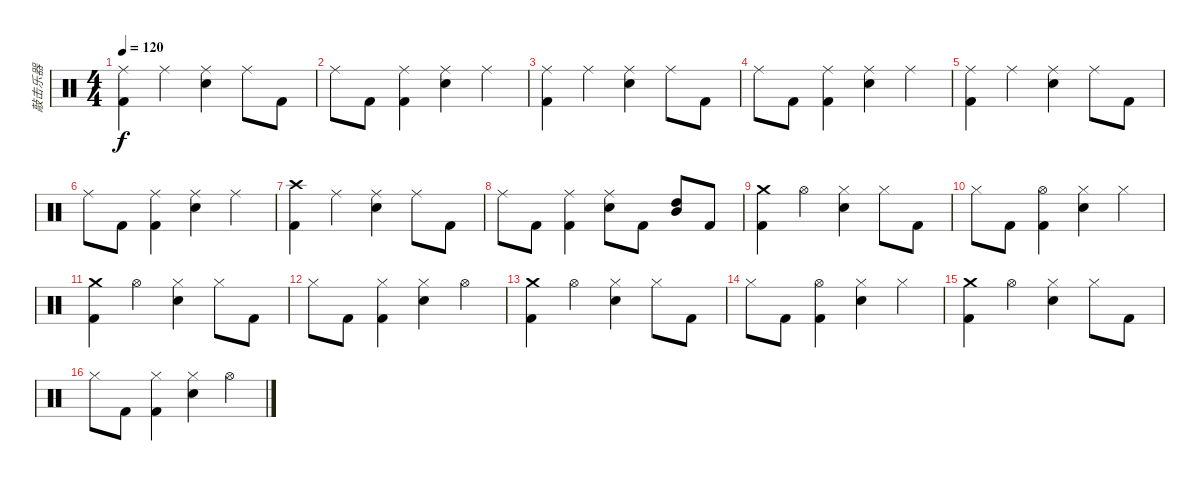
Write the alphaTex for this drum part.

\track ("敲击乐器" "敲击乐器") {instrument percussion}
\staff {score}
\articulation defaults
\ts (4 4)
\tempo 120
\clef neutral
\ks c
("Kick (hit) 2" "Ride (middle)").4{dy f} "Ride (middle)".4 ("Snare (hit) 2" "Ride (middle)").4 "Ride (middle)".8 "Kick (hit) 2".8 |
"Ride (middle)".8 "Kick (hit) 2".8 ("Kick (hit) 2" "Ride (middle)").4 ("Snare (hit) 2" "Ride (middle)").4 "Ride (middle)".4 |
("Kick (hit) 2" "Ride (middle)").4 "Ride (middle)".4 ("Snare (hit) 2" "Ride (middle)").4 "Ride (middle)".8 "Kick (hit) 2".8 |
"Ride (middle)".8 "Kick (hit) 2".8 ("Kick (hit) 2" "Ride (middle)").4 ("Snare (hit) 2" "Ride (middle)").4 "Ride (middle)".4 |
("Kick (hit) 2" "Ride (middle)").4 "Ride (middle)".4 ("Snare (hit) 2" "Ride (middle)").4 "Ride (middle)".8 "Kick (hit) 2".8 |
"Ride (middle)".8 "Kick (hit) 2".8 ("Kick (hit) 2" "Ride (middle)").4 ("Snare (hit) 2" "Ride (middle)").4 "Ride (middle)".4 |
("Kick (hit) 2" "Crash high (hit)").4 "Ride (middle)".4 ("Snare (hit) 2" "Ride (middle)").4 "Ride (middle)".8 "Kick (hit) 2".8 |
"Ride (middle)".8 "Kick (hit) 2".8 ("Kick (hit) 2" "Ride (middle)").4 ("Snare (hit) 2" "Ride (middle)").8 "Kick (hit) 2".8 ("High Tom (hit)" "Mid Tom (hit)").8 "Kick (hit) 2".8 |
("Kick (hit) 2" "Crash medium (hit)").4 "Hi-Hat (open)".4 ("Snare (hit) 2" "Hi-Hat (closed)").4 "Hi-Hat (closed)".8 "Kick (hit) 2".8 |
"Hi-Hat (closed)".8 "Kick (hit) 2".8 ("Kick (hit) 2" "Hi-Hat (open)").4 ("Snare (hit) 2" "Hi-Hat (closed)").4 "Hi-Hat (closed)".4 |
("Kick (hit) 2" "Crash medium (hit)").4 "Hi-Hat (open)".4 ("Snare (hit) 2" "Hi-Hat (closed)").4 "Hi-Hat (closed)".8 "Kick (hit) 2".8 |
"Hi-Hat (closed)".8 "Kick (hit) 2".8 ("Kick (hit) 2" "Hi-Hat (closed)").4 ("Snare (hit) 2" "Hi-Hat (closed)").4 "Hi-Hat (open)".4 |
("Kick (hit) 2" "Crash medium (hit)").4 "Hi-Hat (open)".4 ("Snare (hit) 2" "Hi-Hat (closed)").4 "Hi-Hat (closed)".8 "Kick (hit) 2".8 |
"Hi-Hat (closed)".8 "Kick (hit) 2".8 ("Kick (hit) 2" "Hi-Hat (open)").4 ("Snare (hit) 2" "Hi-Hat (closed)").4 "Hi-Hat (closed)".4 |
("Kick (hit) 2" "Crash medium (hit)").4 "Hi-Hat (open)".4 ("Snare (hit) 2" "Hi-Hat (closed)").4 "Hi-Hat (closed)".8 "Kick (hit) 2".8 |
"Hi-Hat (closed)".8 "Kick (hit) 2".8 ("Kick (hit) 2" "Hi-Hat (closed)").4 ("Snare (hit) 2" "Hi-Hat (closed)").4 "Hi-Hat (open)".4
